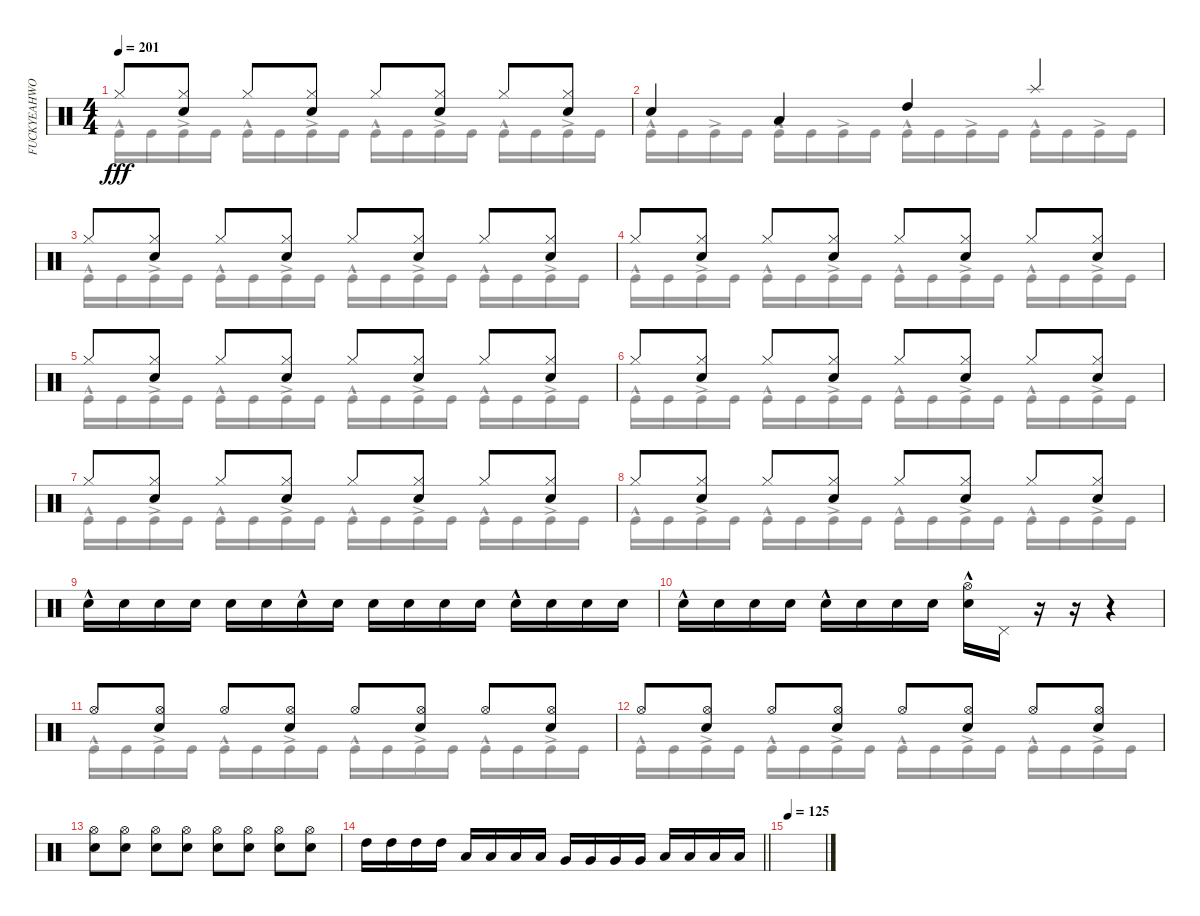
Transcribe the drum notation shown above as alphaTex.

\track ("FUCKYEAHWOOTDAVEMACKINTOSH(Percussion)" "FUCKYEAHWO") {instrument percussion}
\staff {score}
\articulation defaults
\voice
\ts (4 4)
\tempo 201
\clef neutral
\ks c "Hi-Hat (closed)".8{dy fff}
("Hi-Hat (closed)" "Snare (hit) 2").8 "Hi-Hat (closed)".8 ("Snare (hit) 2" "Hi-Hat (closed)").8 "Hi-Hat (closed)".8 ("Hi-Hat (closed)" "Snare (hit) 2").8 "Hi-Hat (closed)".8 ("Hi-Hat (closed)" "Snare (hit) 2").8 |
"Snare (hit) 2".4 "Low Tom (hit)".4 "High Tom (hit)".4 "Splash (hit)".4 |
"Hi-Hat (closed)".8 ("Hi-Hat (closed)" "Snare (hit) 2").8 "Hi-Hat (closed)".8 ("Snare (hit) 2" "Hi-Hat (closed)").8 "Hi-Hat (closed)".8 ("Hi-Hat (closed)" "Snare (hit) 2").8 "Hi-Hat (closed)".8 ("Hi-Hat (closed)" "Snare (hit) 2").8 |
"Hi-Hat (closed)".8 ("Hi-Hat (closed)" "Snare (hit) 2").8 "Hi-Hat (closed)".8 ("Snare (hit) 2" "Hi-Hat (closed)").8 "Hi-Hat (closed)".8 ("Hi-Hat (closed)" "Snare (hit) 2").8 "Hi-Hat (closed)".8 ("Hi-Hat (closed)" "Snare (hit) 2").8 |
"Hi-Hat (closed)".8 ("Hi-Hat (closed)" "Snare (hit) 2").8 "Hi-Hat (closed)".8 ("Snare (hit) 2" "Hi-Hat (closed)").8 "Hi-Hat (closed)".8 ("Hi-Hat (closed)" "Snare (hit) 2").8 "Hi-Hat (closed)".8 ("Hi-Hat (closed)" "Snare (hit) 2").8 |
"Hi-Hat (closed)".8 ("Hi-Hat (closed)" "Snare (hit) 2").8 "Hi-Hat (closed)".8 ("Snare (hit) 2" "Hi-Hat (closed)").8 "Hi-Hat (closed)".8 ("Hi-Hat (closed)" "Snare (hit) 2").8 "Hi-Hat (closed)".8 ("Hi-Hat (closed)" "Snare (hit) 2").8 |
"Hi-Hat (closed)".8 ("Hi-Hat (closed)" "Snare (hit) 2").8 "Hi-Hat (closed)".8 ("Snare (hit) 2" "Hi-Hat (closed)").8 "Hi-Hat (closed)".8 ("Hi-Hat (closed)" "Snare (hit) 2").8 "Hi-Hat (closed)".8 ("Hi-Hat (closed)" "Snare (hit) 2").8 |
"Hi-Hat (closed)".8 ("Hi-Hat (closed)" "Snare (hit) 2").8 "Hi-Hat (closed)".8 ("Snare (hit) 2" "Hi-Hat (closed)").8 "Hi-Hat (closed)".8 ("Hi-Hat (closed)" "Snare (hit) 2").8 "Hi-Hat (closed)".8 ("Hi-Hat (closed)" "Snare (hit) 2").8 |
"Snare (hit) 2"{hac}.16 "Snare (hit) 2".16 "Snare (hit) 2".16 "Snare (hit) 2".16 "Snare (hit) 2".16 "Snare (hit) 2".16 "Snare (hit) 2"{hac}.16 "Snare (hit) 2".16 "Snare (hit) 2".16 "Snare (hit) 2".16 "Snare (hit) 2".16 "Snare (hit) 2".16 "Snare (hit) 2"{hac}.16 "Snare (hit) 2".16 "Snare (hit) 2".16 "Snare (hit) 2".16 |
"Snare (hit) 2"{hac}.16 "Snare (hit) 2".16 "Snare (hit) 2".16 "Snare (hit) 2".16 "Snare (hit) 2"{hac}.16 "Snare (hit) 2".16 "Snare (hit) 2".16 "Snare (hit) 2".16 ("Snare (hit) 2"{hac} "Hi-Hat (open)").16 "Pedal Hi-Hat (hit)".16 r.16 r.16 r.4 |
"Hi-Hat (open)".8 ("Hi-Hat (open)" "Snare (hit) 2").8 "Hi-Hat (open)".8 ("Snare (hit) 2" "Hi-Hat (open)").8 "Hi-Hat (open)".8 ("Snare (hit) 2" "Hi-Hat (open)").8 "Hi-Hat (open)".8 ("Hi-Hat (open)" "Snare (hit) 2").8 |
"Hi-Hat (open)".8 ("Hi-Hat (open)" "Snare (hit) 2").8 "Hi-Hat (open)".8 ("Snare (hit) 2" "Hi-Hat (open)").8 "Hi-Hat (open)".8 ("Snare (hit) 2" "Hi-Hat (open)").8 "Hi-Hat (open)".8 ("Hi-Hat (open)" "Snare (hit) 2").8 |
("Snare (hit) 2" "Hi-Hat (open)").8 ("Snare (hit) 2" "Hi-Hat (open)").8 ("Hi-Hat (open)" "Snare (hit) 2").8 ("Hi-Hat (open)" "Snare (hit) 2").8 ("Hi-Hat (open)" "Snare (hit) 2").8 ("Hi-Hat (open)" "Snare (hit) 2").8 ("Hi-Hat (open)" "Snare (hit) 2").8 ("Hi-Hat (open)" "Snare (hit) 2").8 |
\barLineRight lightlight "High Tom (hit)".16 "High Tom (hit)".16 "High Tom (hit)".16 "High Tom (hit)".16 "Low Tom (hit)".16 "Low Tom (hit)".16 "Low Tom (hit)".16 "Low Tom (hit)".16 "Very Low Tom (hit)".16 "Very Low Tom (hit)".16 "Very Low Tom (hit)".16 "Very Low Tom (hit)".16 "Low Floor Tom (hit)".16 "Low Floor Tom (hit)".16 "Low Floor Tom (hit)".16 "Low Floor Tom (hit)".16
|
\tempo 125
|
\voice
\clef neutral
\ottava regular
\simile none
\ks c "Kick (hit)"{hac}.16{dy fff} "Kick (hit)".16 "Kick (hit)"{ac}.16 "Kick (hit)".16 "Kick (hit)"{hac}.16 "Kick (hit)".16 "Kick (hit)"{ac}.16 "Kick (hit)".16 "Kick (hit)"{hac}.16 "Kick (hit)".16 "Kick (hit)"{ac}.16 "Kick (hit)".16 "Kick (hit)"{hac}.16 "Kick (hit)".16 "Kick (hit)"{ac}.16 "Kick (hit)".16
|
"Kick (hit)"{hac}.16 "Kick (hit)".16 "Kick (hit)"{ac}.16 "Kick (hit)".16 "Kick (hit)"{hac}.16 "Kick (hit)".16 "Kick (hit)"{ac}.16 "Kick (hit)".16 "Kick (hit)"{hac}.16 "Kick (hit)".16 "Kick (hit)"{ac}.16 "Kick (hit)".16 "Kick (hit)"{hac}.16 "Kick (hit)".16 "Kick (hit)"{ac}.16 "Kick (hit)".16 |
"Kick (hit)"{hac}.16 "Kick (hit)".16 "Kick (hit)"{ac}.16 "Kick (hit)".16 "Kick (hit)"{hac}.16 "Kick (hit)".16 "Kick (hit)"{ac}.16 "Kick (hit)".16 "Kick (hit)"{hac}.16 "Kick (hit)".16 "Kick (hit)"{ac}.16 "Kick (hit)".16 "Kick (hit)"{hac}.16 "Kick (hit)".16 "Kick (hit)"{ac}.16 "Kick (hit)".16 |
"Kick (hit)"{hac}.16 "Kick (hit)".16 "Kick (hit)"{ac}.16 "Kick (hit)".16 "Kick (hit)"{hac}.16 "Kick (hit)".16 "Kick (hit)"{ac}.16 "Kick (hit)".16 "Kick (hit)"{hac}.16 "Kick (hit)".16 "Kick (hit)"{ac}.16 "Kick (hit)".16 "Kick (hit)"{hac}.16 "Kick (hit)".16 "Kick (hit)"{ac}.16 "Kick (hit)".16 |
"Kick (hit)"{hac}.16 "Kick (hit)".16 "Kick (hit)"{ac}.16 "Kick (hit)".16 "Kick (hit)"{hac}.16 "Kick (hit)".16 "Kick (hit)"{ac}.16 "Kick (hit)".16 "Kick (hit)"{hac}.16 "Kick (hit)".16 "Kick (hit)"{ac}.16 "Kick (hit)".16 "Kick (hit)"{hac}.16 "Kick (hit)".16 "Kick (hit)"{ac}.16 "Kick (hit)".16 |
"Kick (hit)"{hac}.16 "Kick (hit)".16 "Kick (hit)"{ac}.16 "Kick (hit)".16 "Kick (hit)"{hac}.16 "Kick (hit)".16 "Kick (hit)"{ac}.16 "Kick (hit)".16 "Kick (hit)"{hac}.16 "Kick (hit)".16 "Kick (hit)"{ac}.16 "Kick (hit)".16 "Kick (hit)"{hac}.16 "Kick (hit)".16 "Kick (hit)"{ac}.16 "Kick (hit)".16 |
"Kick (hit)"{hac}.16 "Kick (hit)".16 "Kick (hit)"{ac}.16 "Kick (hit)".16 "Kick (hit)"{hac}.16 "Kick (hit)".16 "Kick (hit)"{ac}.16 "Kick (hit)".16 "Kick (hit)"{hac}.16 "Kick (hit)".16 "Kick (hit)"{ac}.16 "Kick (hit)".16 "Kick (hit)"{hac}.16 "Kick (hit)".16 "Kick (hit)"{ac}.16 "Kick (hit)".16 |
"Kick (hit)"{hac}.16 "Kick (hit)".16 "Kick (hit)"{ac}.16 "Kick (hit)".16 "Kick (hit)"{hac}.16 "Kick (hit)".16 "Kick (hit)"{ac}.16 "Kick (hit)".16 "Kick (hit)"{hac}.16 "Kick (hit)".16 "Kick (hit)"{ac}.16 "Kick (hit)".16 "Kick (hit)"{hac}.16 "Kick (hit)".16 "Kick (hit)"{ac}.16 "Kick (hit)".16 |
|
|
"Kick (hit)"{hac}.16 "Kick (hit)".16 "Kick (hit)"{ac}.16 "Kick (hit)".16 "Kick (hit)"{hac}.16 "Kick (hit)".16 "Kick (hit)"{ac}.16 "Kick (hit)".16 "Kick (hit)"{hac}.16 "Kick (hit)".16 "Kick (hit)"{ac}.16 "Kick (hit)".16 "Kick (hit)"{hac}.16 "Kick (hit)".16 "Kick (hit)"{ac}.16 "Kick (hit)".16 |
"Kick (hit)"{hac}.16 "Kick (hit)".16 "Kick (hit)"{ac}.16 "Kick (hit)".16 "Kick (hit)"{hac}.16 "Kick (hit)".16 "Kick (hit)"{ac}.16 "Kick (hit)".16 "Kick (hit)"{hac}.16 "Kick (hit)".16 "Kick (hit)"{ac}.16 "Kick (hit)".16 "Kick (hit)"{hac}.16 "Kick (hit)".16 "Kick (hit)"{ac}.16 "Kick (hit)".16 |
|
\barLineRight lightlight
|
|
